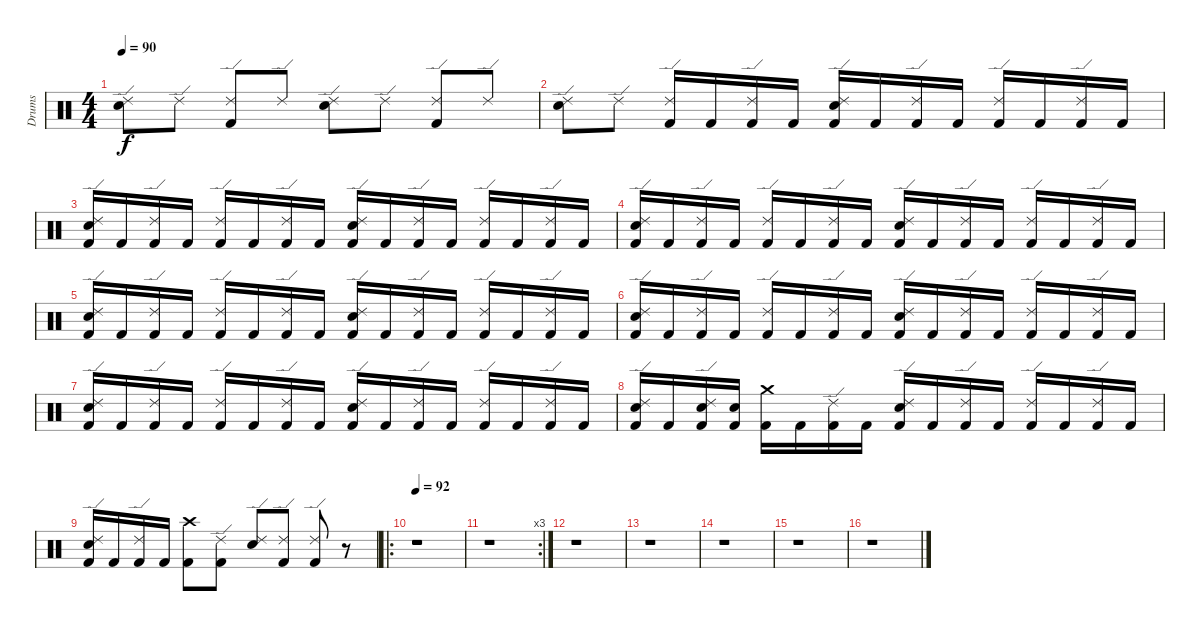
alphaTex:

\track ("Drums" "Drums") {instrument percussion}
\staff {score}
\articulation defaults
\ts (4 4)
\tempo 90
\clef neutral
\ks c
("Ride (edge) 2" "Electric Snare (hit)").8{dy f} "Ride (edge) 2".8 ("Ride (edge) 2" "Kick (hit) 2").8 "Ride (edge) 2".8 ("Ride (edge) 2" "Electric Snare (hit)").8 "Ride (edge) 2".8 ("Ride (edge) 2" "Kick (hit) 2").8 "Ride (edge) 2".8 |
("Ride (edge) 2" "Electric Snare (hit)").8 "Ride (edge) 2".8 ("Ride (edge) 2" "Kick (hit) 2").16 "Kick (hit) 2".16 ("Ride (edge) 2" "Kick (hit) 2").16 "Kick (hit) 2".16 ("Ride (edge) 2" "Electric Snare (hit)" "Kick (hit) 2").16 "Kick (hit) 2".16 ("Ride (edge) 2" "Kick (hit) 2").16 "Kick (hit) 2".16 ("Ride (edge) 2" "Kick (hit) 2").16 "Kick (hit) 2".16 ("Ride (edge) 2" "Kick (hit) 2").16 "Kick (hit) 2".16 |
("Ride (edge) 2" "Electric Snare (hit)" "Kick (hit) 2").16 "Kick (hit) 2".16 ("Ride (edge) 2" "Kick (hit) 2").16 "Kick (hit) 2".16 ("Ride (edge) 2" "Kick (hit) 2").16 "Kick (hit) 2".16 ("Ride (edge) 2" "Kick (hit) 2").16 "Kick (hit) 2".16 ("Ride (edge) 2" "Electric Snare (hit)" "Kick (hit) 2").16 "Kick (hit) 2".16 ("Ride (edge) 2" "Kick (hit) 2").16 "Kick (hit) 2".16 ("Ride (edge) 2" "Kick (hit) 2").16 "Kick (hit) 2".16 ("Ride (edge) 2" "Kick (hit) 2").16 "Kick (hit) 2".16 |
("Ride (edge) 2" "Electric Snare (hit)" "Kick (hit) 2").16 "Kick (hit) 2".16 ("Ride (edge) 2" "Kick (hit) 2").16 "Kick (hit) 2".16 ("Ride (edge) 2" "Kick (hit) 2").16 "Kick (hit) 2".16 ("Ride (edge) 2" "Kick (hit) 2").16 "Kick (hit) 2".16 ("Ride (edge) 2" "Electric Snare (hit)" "Kick (hit) 2").16 "Kick (hit) 2".16 ("Ride (edge) 2" "Kick (hit) 2").16 "Kick (hit) 2".16 ("Ride (edge) 2" "Kick (hit) 2").16 "Kick (hit) 2".16 ("Ride (edge) 2" "Kick (hit) 2").16 "Kick (hit) 2".16 |
("Ride (edge) 2" "Electric Snare (hit)" "Kick (hit) 2").16 "Kick (hit) 2".16 ("Ride (edge) 2" "Kick (hit) 2").16 "Kick (hit) 2".16 ("Ride (edge) 2" "Kick (hit) 2").16 "Kick (hit) 2".16 ("Ride (edge) 2" "Kick (hit) 2").16 "Kick (hit) 2".16 ("Ride (edge) 2" "Electric Snare (hit)" "Kick (hit) 2").16 "Kick (hit) 2".16 ("Ride (edge) 2" "Kick (hit) 2").16 "Kick (hit) 2".16 ("Ride (edge) 2" "Kick (hit) 2").16 "Kick (hit) 2".16 ("Ride (edge) 2" "Kick (hit) 2").16 "Kick (hit) 2".16 |
("Ride (edge) 2" "Electric Snare (hit)" "Kick (hit) 2").16 "Kick (hit) 2".16 ("Ride (edge) 2" "Kick (hit) 2").16 "Kick (hit) 2".16 ("Ride (edge) 2" "Kick (hit) 2").16 "Kick (hit) 2".16 ("Ride (edge) 2" "Kick (hit) 2").16 "Kick (hit) 2".16 ("Ride (edge) 2" "Electric Snare (hit)" "Kick (hit) 2").16 "Kick (hit) 2".16 ("Ride (edge) 2" "Kick (hit) 2").16 "Kick (hit) 2".16 ("Ride (edge) 2" "Kick (hit) 2").16 "Kick (hit) 2".16 ("Ride (edge) 2" "Kick (hit) 2").16 "Kick (hit) 2".16 |
("Ride (edge) 2" "Electric Snare (hit)" "Kick (hit) 2").16 "Kick (hit) 2".16 ("Ride (edge) 2" "Kick (hit) 2").16 "Kick (hit) 2".16 ("Ride (edge) 2" "Kick (hit) 2").16 "Kick (hit) 2".16 ("Ride (edge) 2" "Kick (hit) 2").16 "Kick (hit) 2".16 ("Ride (edge) 2" "Electric Snare (hit)" "Kick (hit) 2").16 "Kick (hit) 2".16 ("Ride (edge) 2" "Kick (hit) 2").16 "Kick (hit) 2".16 ("Ride (edge) 2" "Kick (hit) 2").16 "Kick (hit) 2".16 ("Ride (edge) 2" "Kick (hit) 2").16 "Kick (hit) 2".16 |
("Kick (hit) 2" "Electric Snare (hit)" "Ride (edge) 2").16 "Kick (hit) 2".16 ("Kick (hit) 2" "Electric Snare (hit)" "Ride (edge) 2").16 ("Kick (hit) 2" "Electric Snare (hit)").16 ("Kick (hit) 2" "Crash medium (hit)").16 "Kick (hit) 2".16 ("Kick (hit) 2" "Ride (edge) 2").16 "Kick (hit) 2".16 ("Kick (hit) 2" "Electric Snare (hit)" "Ride (edge) 2").16 "Kick (hit) 2".16 ("Kick (hit) 2" "Ride (edge) 2").16 "Kick (hit) 2".16 ("Kick (hit) 2" "Ride (edge) 2").16 "Kick (hit) 2".16 ("Kick (hit) 2" "Ride (edge) 2").16 "Kick (hit) 2".16 |
("Kick (hit) 2" "Electric Snare (hit)" "Ride (edge) 2").16 "Kick (hit) 2".16 ("Kick (hit) 2" "Ride (edge) 2").16 "Kick (hit) 2".16 ("Kick (hit) 2" "Crash high (hit)").8 ("Kick (hit) 2" "Ride (edge) 2").8 ("Electric Snare (hit)" "Ride (edge) 2").8 ("Kick (hit) 2" "Ride (edge) 2").8 ("Kick (hit) 2" "Ride (edge) 2").8 r.8 |
\ro
\tempo 92
r.1 |
\rc 3
r.1 |
r.1 |
r.1 |
r.1 |
r.1 |
r.1
